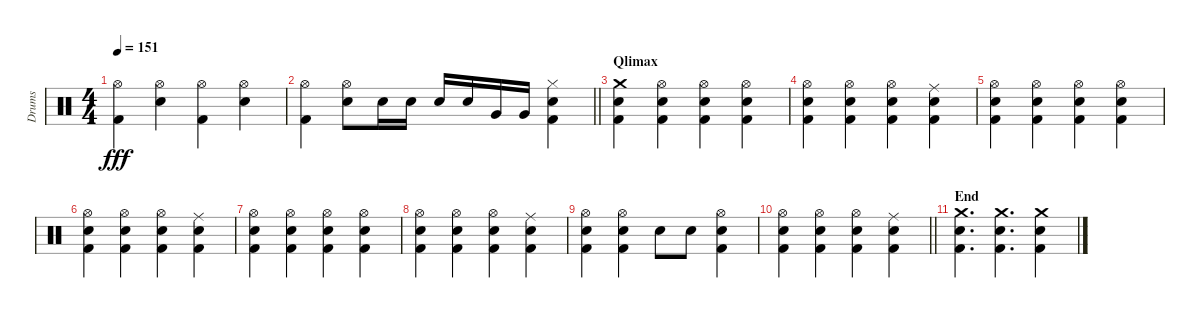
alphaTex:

\track ("Drums" "Drums") {instrument percussion}
\staff {score}
\articulation defaults
\ts (4 4)
\tempo 151
\clef neutral
\ks c
("Hi-Hat (open)" "Kick (hit) 2").4{dy fff} ("Hi-Hat (open)" "Electric Snare (hit)").4 ("Hi-Hat (open)" "Kick (hit) 2").4 ("Hi-Hat (open)" "Electric Snare (hit)").4 |
\barLineRight lightlight
("Hi-Hat (open)" "Kick (hit) 2").4 ("Hi-Hat (open)" "Electric Snare (hit)").8 "Electric Snare (hit)".16 "Electric Snare (hit)".16 "Electric Snare (hit)".16 "Electric Snare (hit)".16 "Very Low Tom (hit)".16 "Very Low Tom (hit)".16 ("Hi-Hat (closed)" "Electric Snare (hit)" "Kick (hit) 2").4 |
\section ("" "Qlimax")
("Crash medium (hit)" "Electric Snare (hit)" "Kick (hit) 2").4 ("Hi-Hat (open)" "Electric Snare (hit)" "Kick (hit) 2").4 ("Hi-Hat (open)" "Electric Snare (hit)" "Kick (hit) 2").4 ("Hi-Hat (open)" "Electric Snare (hit)" "Kick (hit) 2").4 |
("Hi-Hat (open)" "Electric Snare (hit)" "Kick (hit) 2").4 ("Hi-Hat (open)" "Electric Snare (hit)" "Kick (hit) 2").4 ("Hi-Hat (open)" "Electric Snare (hit)" "Kick (hit) 2").4 ("Ride (middle)" "Electric Snare (hit)" "Kick (hit) 2").4 |
("Hi-Hat (open)" "Electric Snare (hit)" "Kick (hit) 2").4 ("Hi-Hat (open)" "Electric Snare (hit)" "Kick (hit) 2").4 ("Hi-Hat (open)" "Electric Snare (hit)" "Kick (hit) 2").4 ("Hi-Hat (open)" "Electric Snare (hit)" "Kick (hit) 2").4 |
("Hi-Hat (open)" "Electric Snare (hit)" "Kick (hit) 2").4 ("Hi-Hat (open)" "Electric Snare (hit)" "Kick (hit) 2").4 ("Hi-Hat (open)" "Electric Snare (hit)" "Kick (hit) 2").4 ("Ride (middle)" "Electric Snare (hit)" "Kick (hit) 2").4 |
("Hi-Hat (open)" "Electric Snare (hit)" "Kick (hit) 2").4 ("Hi-Hat (open)" "Electric Snare (hit)" "Kick (hit) 2").4 ("Hi-Hat (open)" "Electric Snare (hit)" "Kick (hit) 2").4 ("Hi-Hat (open)" "Electric Snare (hit)" "Kick (hit) 2").4 |
("Hi-Hat (open)" "Electric Snare (hit)" "Kick (hit) 2").4 ("Hi-Hat (open)" "Electric Snare (hit)" "Kick (hit) 2").4 ("Hi-Hat (open)" "Electric Snare (hit)" "Kick (hit) 2").4 ("Ride (middle)" "Electric Snare (hit)" "Kick (hit) 2").4 |
("Hi-Hat (open)" "Electric Snare (hit)" "Kick (hit) 2").4 ("Hi-Hat (open)" "Electric Snare (hit)" "Kick (hit) 2").4 "Electric Snare (hit)".8 "Electric Snare (hit)".8 ("Hi-Hat (open)" "Electric Snare (hit)" "Kick (hit) 2").4 |
\barLineRight lightlight
("Hi-Hat (open)" "Electric Snare (hit)" "Kick (hit) 2").4 ("Hi-Hat (open)" "Electric Snare (hit)" "Kick (hit) 2").4 ("Hi-Hat (open)" "Electric Snare (hit)" "Kick (hit) 2").4 ("Ride (middle)" "Electric Snare (hit)" "Kick (hit) 2").4 |
\section ("" "End")
("Crash medium (hit)" "Electric Snare (hit)" "Kick (hit) 2").4{d} ("Crash medium (hit)" "Electric Snare (hit)" "Kick (hit) 2").4{d} ("Crash medium (hit)" "Electric Snare (hit)" "Kick (hit) 2").4
